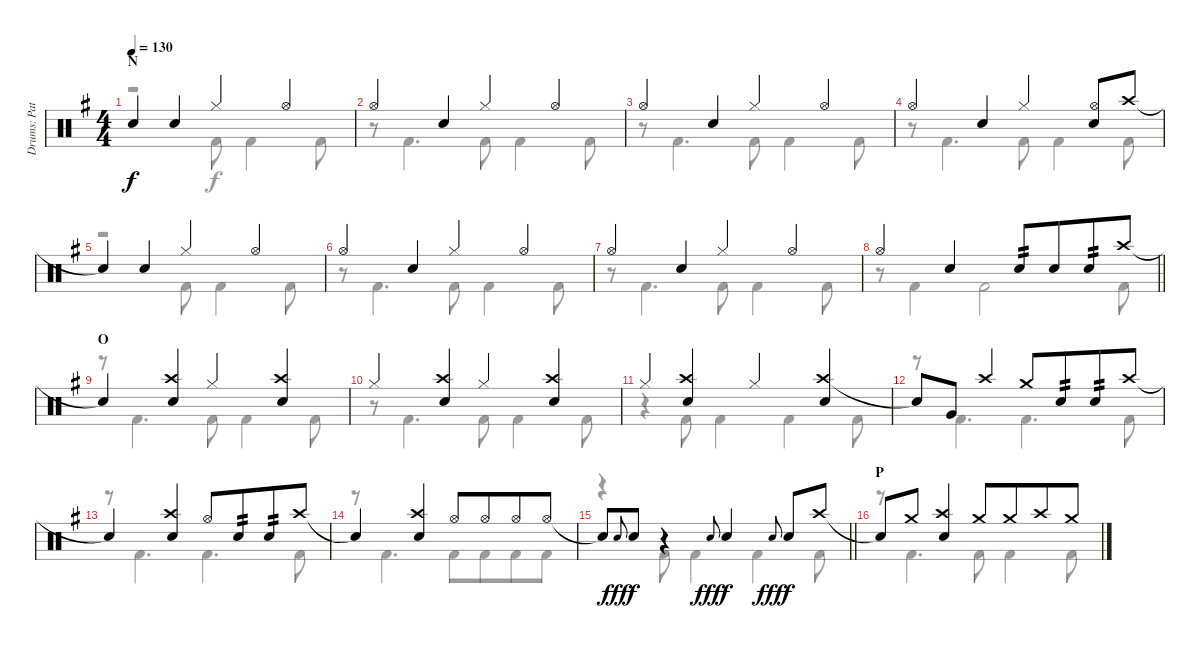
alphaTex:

\track ("Drums: Pat" "Drums: Pat") {instrument percussion}
\staff {score}
\articulation defaults
\voice
\ts (4 4)
\section ("" "N")
\tempo 130
\clef neutral
\ks g "Snare (hit)"{t}.4{dy f} "Snare (hit) 2".4 "Hi-Hat (closed)".4 "Hi-Hat (open)".4
|
"Hi-Hat (open)".4 "Snare (hit) 2".4 "Hi-Hat (closed)".4 "Hi-Hat (open)".4 |
"Hi-Hat (open)".4 "Snare (hit) 2".4 "Hi-Hat (closed)".4 "Hi-Hat (open)".4 |
"Hi-Hat (open)".4 "Snare (hit) 2".4 "Hi-Hat (closed)".4 ("Hi-Hat (open)" "Snare (hit) 2").8 "Crash high (hit)".8 |
"Snare (hit)"{t}.4 "Snare (hit) 2".4 "Hi-Hat (closed)".4 "Hi-Hat (open)".4 |
"Hi-Hat (open)".4 "Snare (hit) 2".4 "Hi-Hat (closed)".4 "Hi-Hat (open)".4 |
"Hi-Hat (open)".4 "Snare (hit) 2".4 "Hi-Hat (closed)".4 "Hi-Hat (open)".4 |
\barLineRight lightlight "Hi-Hat (open)".4 "Snare (hit) 2".4 "Snare (hit) 2".8{tp 2} "Snare (hit) 2".8{beam merge} "Snare (hit) 2".8{tp 2} "Crash high (hit)".8
|
\section ("" "O")
"Snare (hit)"{t}.4 ("Crash high (hit)" "Snare (hit) 2").4 "Hi-Hat (closed)".4 ("Crash high (hit)" "Snare (hit) 2").4 |
"Hi-Hat (closed)".4 ("Crash high (hit)" "Snare (hit) 2").4 "Hi-Hat (closed)".4 ("Crash high (hit)" "Snare (hit) 2").4 |
"Hi-Hat (closed)".4 ("Crash high (hit)" "Snare (hit) 2").4 "Hi-Hat (closed)".4 ("Crash high (hit)" "Snare (hit) 2").4 |
"Snare (hit)"{t}.8 "Very Low Tom (hit)".8 "Crash high (hit)".4 "Crash medium (hit)".8{beam merge} "Snare (hit) 2".8{tp 2 beam merge} "Snare (hit) 2".8{tp 2} "Crash high (hit)".8 |
"Snare (hit)"{t}.4 ("Crash high (hit)" "Snare (hit) 2").4 "Hi-Hat (open)".8{beam merge} "Snare (hit) 2".8{tp 2 beam merge} "Snare (hit) 2".8{tp 2} "Crash high (hit)".8 |
"Snare (hit)"{t}.4 ("Crash high (hit)" "Snare (hit) 2").4 "Hi-Hat (open)".8{beam merge} "Hi-Hat (open)".8{beam merge} "Hi-Hat (open)".8 "Hi-Hat (open)".8 |
\barLineRight lightlight "Snare (hit)"{t}.8 "Electric Snare (hit)".8{gr onbeat dy fff} "Snare (hit) 2".8{dy f}
r.4 "Electric Snare (hit)".8{gr onbeat dy fff} "Snare (hit) 2".4{dy f} "Electric Snare (hit)".8{gr onbeat dy fff} "Snare (hit) 2".8{dy f} "Crash high (hit)".8 |
\section ("" "P")
"Snare (hit)"{t}.8 "Crash medium (hit)".8 ("Crash high (hit)" "Snare (hit) 2").4 "Crash medium (hit)".8 "Crash medium (hit)".8{beam merge} "Crash high (hit)".8 "Crash medium (hit)".8
\voice
\clef neutral
\ottava regular
\simile none
\ks g
r.2{dy f} "Kick (hit) 2".8 "Kick (hit) 2".4 "Kick (hit) 2".8 |
r.8 "Kick (hit) 2".4{d} "Kick (hit) 2".8 "Kick (hit) 2".4 "Kick (hit) 2".8 |
r.8 "Kick (hit) 2".4{d} "Kick (hit) 2".8 "Kick (hit) 2".4 "Kick (hit) 2".8 |
r.8 "Kick (hit) 2".4{d} "Kick (hit) 2".8 "Kick (hit) 2".4 "Kick (hit) 2".8 |
r.2 "Kick (hit) 2".8 "Kick (hit) 2".4 "Kick (hit) 2".8 |
r.8 "Kick (hit) 2".4{d} "Kick (hit) 2".8 "Kick (hit) 2".4 "Kick (hit) 2".8 |
r.8 "Kick (hit) 2".4{d} "Kick (hit) 2".8 "Kick (hit) 2".4 "Kick (hit) 2".8 |
\barLineRight lightlight
r.8 "Kick (hit) 2".4 "Kick (hit) 2".2 "Kick (hit) 2".8 |
r.8 "Kick (hit) 2".4{d} "Kick (hit) 2".8 "Kick (hit) 2".4 "Kick (hit) 2".8 |
r.8 "Kick (hit) 2".4{d} "Kick (hit) 2".8 "Kick (hit) 2".4 "Kick (hit) 2".8 |
r.4 "Kick (hit) 2".8 "Kick (hit) 2".4 "Kick (hit) 2".4 "Kick (hit) 2".8 |
r.8 "Kick (hit) 2".4{d} "Kick (hit) 2".4{d} "Kick (hit) 2".8 |
r.8 "Kick (hit) 2".4{d} "Kick (hit) 2".4{d} "Kick (hit) 2".8 |
r.8 "Kick (hit) 2".4{d} "Kick (hit) 2".8 "Kick (hit) 2".8{beam merge} "Kick (hit) 2".8 "Kick (hit) 2".8 |
\barLineRight lightlight
r.4 "Kick (hit) 2".8 "Kick (hit) 2".4 "Kick (hit) 2".4 "Kick (hit) 2".8 |
r.8 "Kick (hit) 2".4{d} "Kick (hit) 2".8 "Kick (hit) 2".4 "Kick (hit) 2".8
